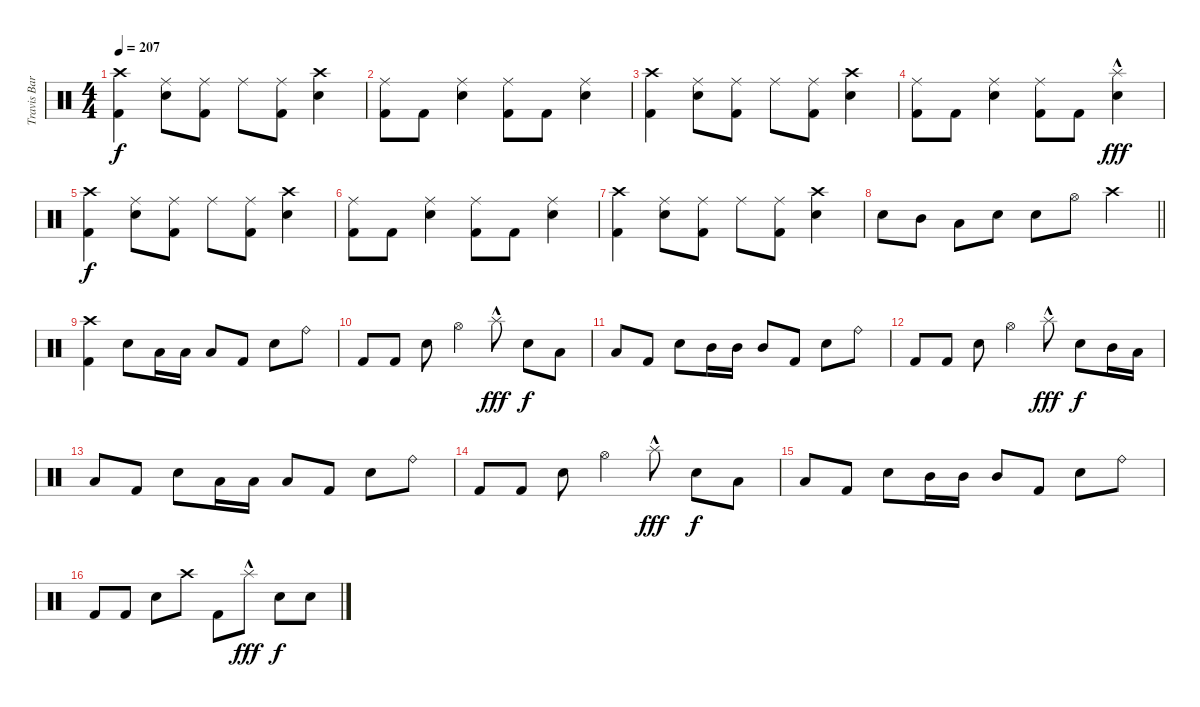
\track ("Travis Barker" "Travis Bar") {instrument percussion}
\staff {score}
\articulation defaults
\ts (4 4)
\tempo 207
\clef neutral
\ks c
("Crash high (hit)" "Kick (hit) 2").4{dy f} ("Electric Snare (hit)" "Ride (middle)").8 ("Kick (hit) 2" "Ride (middle)").8 "Ride (middle)".8 ("Kick (hit) 2" "Ride (middle)").8 ("Electric Snare (hit)" "Crash high (hit)").4 |
("Ride (middle)" "Kick (hit) 2").8 "Kick (hit) 2".8 ("Ride (middle)" "Electric Snare (hit)").4 ("Ride (middle)" "Kick (hit) 2").8 "Kick (hit) 2".8 ("Ride (middle)" "Electric Snare (hit)").4 |
("Crash high (hit)" "Kick (hit) 2").4 ("Electric Snare (hit)" "Ride (middle)").8 ("Kick (hit) 2" "Ride (middle)").8 "Ride (middle)".8 ("Kick (hit) 2" "Ride (middle)").8 ("Electric Snare (hit)" "Crash high (hit)").4 |
("Ride (middle)" "Kick (hit) 2").8 "Kick (hit) 2".8 ("Ride (middle)" "Electric Snare (hit)").4 ("Ride (middle)" "Kick (hit) 2").8 "Kick (hit) 2".8 ("Splash (hit)"{hac} "Electric Snare (hit)").4{dy fff} |
("Crash high (hit)" "Kick (hit) 2").4{dy f} ("Electric Snare (hit)" "Ride (middle)").8 ("Kick (hit) 2" "Ride (middle)").8 "Ride (middle)".8 ("Kick (hit) 2" "Ride (middle)").8 ("Electric Snare (hit)" "Crash high (hit)").4 |
("Ride (middle)" "Kick (hit) 2").8 "Kick (hit) 2".8 ("Ride (middle)" "Electric Snare (hit)").4 ("Ride (middle)" "Kick (hit) 2").8 "Kick (hit) 2".8 ("Ride (middle)" "Electric Snare (hit)").4 |
("Crash high (hit)" "Kick (hit) 2").4 ("Ride (middle)" "Electric Snare (hit)").8 ("Ride (middle)" "Kick (hit) 2").8 "Ride (middle)".8 ("Ride (middle)" "Kick (hit) 2").8 ("Crash high (hit)" "Electric Snare (hit)").4 |
\barLineRight lightlight "Electric Snare (hit)".8 "Mid Tom (hit)".8 "Low Tom (hit)".8 "Electric Snare (hit)".8 "Electric Snare (hit)".8 "Hi-Hat (open)".8 "Crash high (hit)".4
|
("Crash high (hit)" "Kick (hit) 2").4 "Electric Snare (hit)".8 "Low Tom (hit)".16 "Low Tom (hit)".16 "Low Tom (hit)".8 "Kick (hit) 2".8 "Electric Snare (hit)".8 "Ride (bell)".8 |
"Kick (hit) 2".8 "Kick (hit) 2".8 "Electric Snare (hit)".8 "Hi-Hat (open)".4 "Splash (hit)"{hac}.8{dy fff} "Electric Snare (hit)".8{dy f} "Low Tom (hit)".8 |
"Low Tom (hit)".8 "Kick (hit) 2".8 "Electric Snare (hit)".8 "Mid Tom (hit)".16 "Mid Tom (hit)".16 "Mid Tom (hit)".8 "Kick (hit) 2".8 "Electric Snare (hit)".8 "Ride (bell)".8 |
"Kick (hit) 2".8 "Kick (hit) 2".8 "Electric Snare (hit)".8 "Hi-Hat (open)".4 "Splash (hit)"{hac}.8{dy fff} "Electric Snare (hit)".8{dy f} "Mid Tom (hit)".16 "Low Tom (hit)".16 |
"Low Tom (hit)".8 "Kick (hit) 2".8 "Electric Snare (hit)".8 "Low Tom (hit)".16 "Low Tom (hit)".16 "Low Tom (hit)".8 "Kick (hit) 2".8 "Electric Snare (hit)".8 "Ride (bell)".8 |
"Kick (hit) 2".8 "Kick (hit) 2".8 "Electric Snare (hit)".8 "Hi-Hat (open)".4 "Splash (hit)"{hac}.8{dy fff} "Electric Snare (hit)".8{dy f} "Low Tom (hit)".8 |
"Low Tom (hit)".8 "Kick (hit) 2".8 "Electric Snare (hit)".8 "Mid Tom (hit)".16 "Mid Tom (hit)".16 "Mid Tom (hit)".8 "Kick (hit) 2".8 "Electric Snare (hit)".8 "Ride (bell)".8 |
"Kick (hit) 2".8 "Kick (hit) 2".8 "Electric Snare (hit)".8 "Crash high (hit)".8 "Kick (hit) 2".8 "Splash (hit)"{hac}.8{dy fff} "Electric Snare (hit)".8{dy f} "Electric Snare (hit)".8
